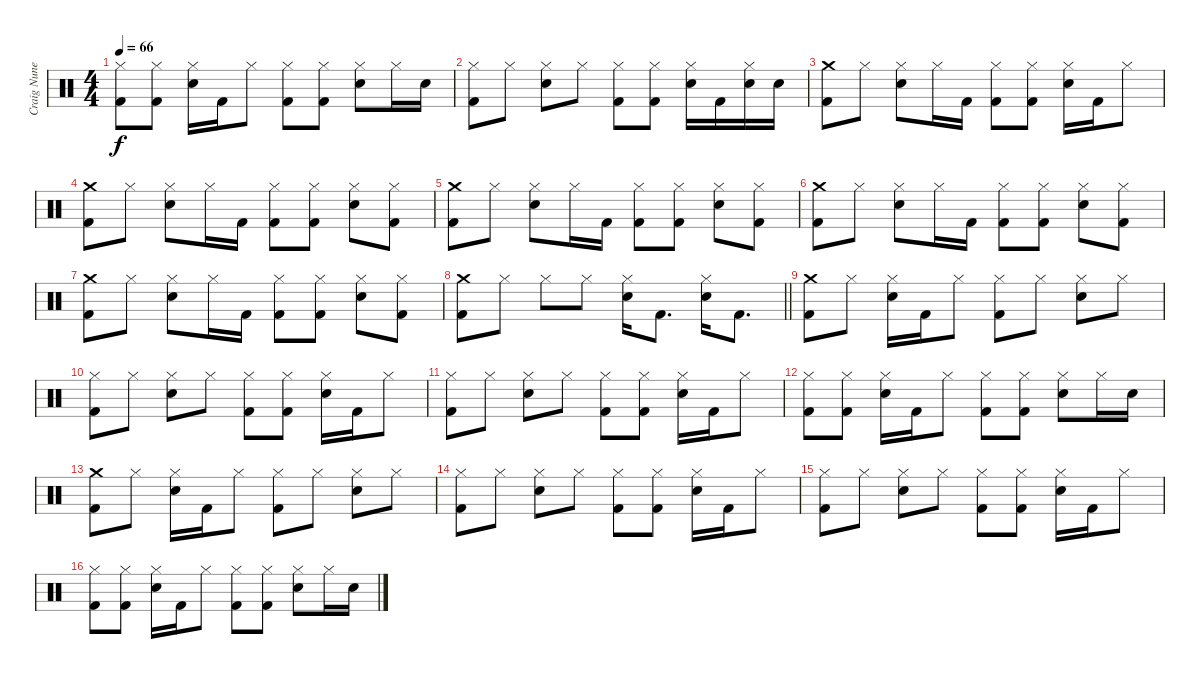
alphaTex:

\track ("Craig Nunenmacher" "Craig Nune") {instrument percussion}
\staff {score}
\articulation defaults
\ts (4 4)
\tempo 66
\clef neutral
\ks c
("Hi-Hat (closed)" "Kick (hit) 2").8{dy f} ("Hi-Hat (closed)" "Kick (hit) 2").8 ("Hi-Hat (closed)" "Snare (hit) 2").16 "Kick (hit) 2".16 "Hi-Hat (closed)".8 ("Hi-Hat (closed)" "Kick (hit) 2").8 ("Hi-Hat (closed)" "Kick (hit) 2").8 ("Hi-Hat (closed)" "Snare (hit) 2").8 "Hi-Hat (closed)".16 "Snare (hit) 2".16 |
("Hi-Hat (closed)" "Kick (hit) 2").8 "Hi-Hat (closed)".8 ("Hi-Hat (closed)" "Snare (hit) 2").8 "Hi-Hat (closed)".8 ("Hi-Hat (closed)" "Kick (hit) 2").8 ("Hi-Hat (closed)" "Kick (hit) 2").8 ("Hi-Hat (closed)" "Snare (hit) 2").16 "Kick (hit) 2".16 ("Hi-Hat (closed)" "Snare (hit) 2").16 "Snare (hit) 2".16 |
("Crash medium (hit)" "Kick (hit) 2").8 "Hi-Hat (closed)".8 ("Hi-Hat (closed)" "Snare (hit) 2").8 "Hi-Hat (closed)".16 "Kick (hit) 2".16 ("Hi-Hat (closed)" "Kick (hit) 2").8 ("Hi-Hat (closed)" "Kick (hit) 2").8 ("Hi-Hat (closed)" "Snare (hit) 2").16 "Kick (hit) 2".16 "Hi-Hat (closed)".8 |
("Crash medium (hit)" "Kick (hit) 2").8 "Hi-Hat (closed)".8 ("Hi-Hat (closed)" "Snare (hit) 2").8 "Hi-Hat (closed)".16 "Kick (hit) 2".16 ("Hi-Hat (closed)" "Kick (hit) 2").8 ("Hi-Hat (closed)" "Kick (hit) 2").8 ("Hi-Hat (closed)" "Snare (hit) 2").8 ("Hi-Hat (closed)" "Kick (hit) 2").8 |
("Crash medium (hit)" "Kick (hit) 2").8 "Hi-Hat (closed)".8 ("Hi-Hat (closed)" "Snare (hit) 2").8 "Hi-Hat (closed)".16 "Kick (hit) 2".16 ("Hi-Hat (closed)" "Kick (hit) 2").8 ("Hi-Hat (closed)" "Kick (hit) 2").8 ("Hi-Hat (closed)" "Snare (hit) 2").8 ("Hi-Hat (closed)" "Kick (hit) 2").8 |
("Crash medium (hit)" "Kick (hit) 2").8 "Hi-Hat (closed)".8 ("Hi-Hat (closed)" "Snare (hit) 2").8 "Hi-Hat (closed)".16 "Kick (hit) 2".16 ("Hi-Hat (closed)" "Kick (hit) 2").8 ("Hi-Hat (closed)" "Kick (hit) 2").8 ("Hi-Hat (closed)" "Snare (hit) 2").8 ("Hi-Hat (closed)" "Kick (hit) 2").8 |
("Crash medium (hit)" "Kick (hit) 2").8 "Hi-Hat (closed)".8 ("Hi-Hat (closed)" "Snare (hit) 2").8 "Hi-Hat (closed)".16 "Kick (hit) 2".16 ("Hi-Hat (closed)" "Kick (hit) 2").8 ("Hi-Hat (closed)" "Kick (hit) 2").8 ("Hi-Hat (closed)" "Snare (hit) 2").8 ("Hi-Hat (closed)" "Kick (hit) 2").8 |
\barLineRight lightlight
("Crash medium (hit)" "Kick (hit) 2").8 "Hi-Hat (closed)".8 "Hi-Hat (closed)".8 "Hi-Hat (closed)".8 ("Hi-Hat (closed)" "Snare (hit) 2").16 "Kick (hit) 2".8{d} ("Hi-Hat (closed)" "Snare (hit) 2").16 "Kick (hit) 2".8{d} |
("Crash medium (hit)" "Kick (hit) 2").8 "Hi-Hat (closed)".8 ("Hi-Hat (closed)" "Snare (hit) 2").16 "Kick (hit) 2".16 "Hi-Hat (closed)".8 ("Hi-Hat (closed)" "Kick (hit) 2").8 "Hi-Hat (closed)".8 ("Hi-Hat (closed)" "Snare (hit) 2").8 "Hi-Hat (closed)".8 |
("Hi-Hat (closed)" "Kick (hit) 2").8 "Hi-Hat (closed)".8 ("Hi-Hat (closed)" "Snare (hit) 2").8 "Hi-Hat (closed)".8 ("Hi-Hat (closed)" "Kick (hit) 2").8 ("Hi-Hat (closed)" "Kick (hit) 2").8 ("Hi-Hat (closed)" "Snare (hit) 2").16 "Kick (hit) 2".16 "Hi-Hat (closed)".8 |
("Hi-Hat (closed)" "Kick (hit) 2").8 "Hi-Hat (closed)".8 ("Hi-Hat (closed)" "Snare (hit) 2").8 "Hi-Hat (closed)".8 ("Hi-Hat (closed)" "Kick (hit) 2").8 ("Hi-Hat (closed)" "Kick (hit) 2").8 ("Hi-Hat (closed)" "Snare (hit) 2").16 "Kick (hit) 2".16 "Hi-Hat (closed)".8 |
("Hi-Hat (closed)" "Kick (hit) 2").8 ("Hi-Hat (closed)" "Kick (hit) 2").8 ("Hi-Hat (closed)" "Snare (hit) 2").16 "Kick (hit) 2".16 "Hi-Hat (closed)".8 ("Hi-Hat (closed)" "Kick (hit) 2").8 ("Hi-Hat (closed)" "Kick (hit) 2").8 ("Hi-Hat (closed)" "Snare (hit) 2").8 "Hi-Hat (closed)".16 "Snare (hit) 2".16 |
("Crash medium (hit)" "Kick (hit) 2").8 "Hi-Hat (closed)".8 ("Hi-Hat (closed)" "Snare (hit) 2").16 "Kick (hit) 2".16 "Hi-Hat (closed)".8 ("Hi-Hat (closed)" "Kick (hit) 2").8 "Hi-Hat (closed)".8 ("Hi-Hat (closed)" "Snare (hit) 2").8 "Hi-Hat (closed)".8 |
("Hi-Hat (closed)" "Kick (hit) 2").8 "Hi-Hat (closed)".8 ("Hi-Hat (closed)" "Snare (hit) 2").8 "Hi-Hat (closed)".8 ("Hi-Hat (closed)" "Kick (hit) 2").8 ("Hi-Hat (closed)" "Kick (hit) 2").8 ("Hi-Hat (closed)" "Snare (hit) 2").16 "Kick (hit) 2".16 "Hi-Hat (closed)".8 |
("Hi-Hat (closed)" "Kick (hit) 2").8 "Hi-Hat (closed)".8 ("Hi-Hat (closed)" "Snare (hit) 2").8 "Hi-Hat (closed)".8 ("Hi-Hat (closed)" "Kick (hit) 2").8 ("Hi-Hat (closed)" "Kick (hit) 2").8 ("Hi-Hat (closed)" "Snare (hit) 2").16 "Kick (hit) 2".16 "Hi-Hat (closed)".8 |
("Hi-Hat (closed)" "Kick (hit) 2").8 ("Hi-Hat (closed)" "Kick (hit) 2").8 ("Hi-Hat (closed)" "Snare (hit) 2").16 "Kick (hit) 2".16 "Hi-Hat (closed)".8 ("Hi-Hat (closed)" "Kick (hit) 2").8 ("Hi-Hat (closed)" "Kick (hit) 2").8 ("Hi-Hat (closed)" "Snare (hit) 2").8 "Hi-Hat (closed)".16 "Snare (hit) 2".16
